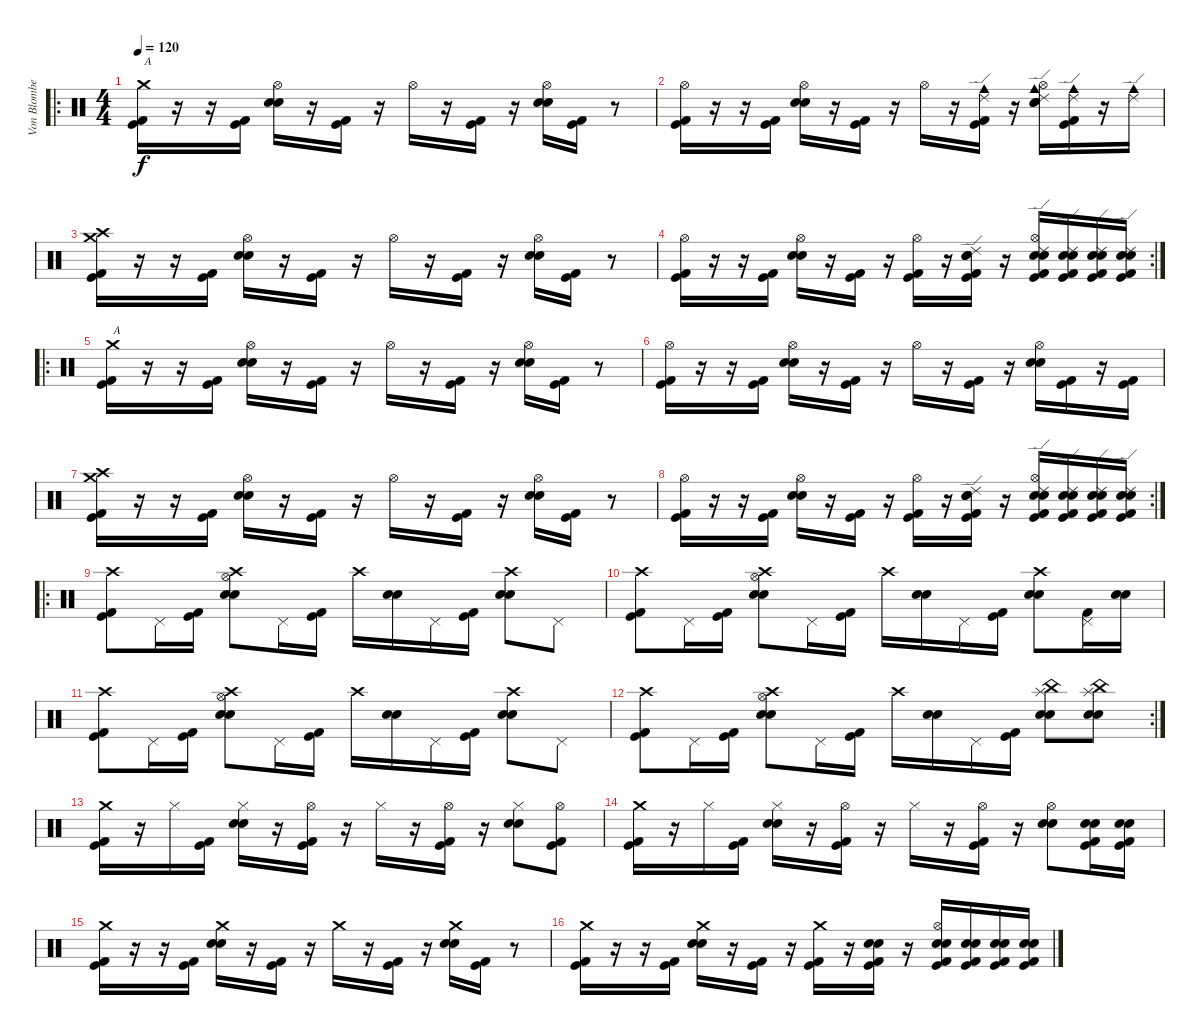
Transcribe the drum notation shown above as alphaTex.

\track ("Von Blomberg" "Von Blombe") {instrument percussion}
\staff {score}
\articulation defaults
\ro
\ts (4 4)
\tempo 120
\clef neutral
\ks c
("Crash medium (hit)" "Kick (hit) 2" "Kick (hit)").16{txt "A" dy f} r.16 r.16 ("Kick (hit)" "Kick (hit) 2").16 ("Hi-Hat (open)" "Electric Snare (hit)" "Snare (hit) 2").16 r.16 ("Kick (hit)" "Kick (hit) 2").16 r.16 "Hi-Hat (open)".16 r.16 ("Kick (hit)" "Kick (hit) 2").16 r.16 ("Hi-Hat (open)" "Snare (hit) 2" "Electric Snare (hit)").16 ("Kick (hit)" "Kick (hit) 2").16 r.8 |
("Hi-Hat (open)" "Kick (hit) 2" "Kick (hit)").16 r.16 r.16 ("Kick (hit)" "Kick (hit) 2").16 ("Hi-Hat (open)" "Electric Snare (hit)" "Snare (hit) 2").16 r.16 ("Kick (hit)" "Kick (hit) 2").16 r.16 "Hi-Hat (open)".16 r.16 ("Cowbell medium (hit)" "Ride (edge) 2" "Kick (hit)" "Kick (hit) 2").16 r.16 ("Cowbell medium (hit)" "Ride (edge) 2" "Hi-Hat (open)" "Snare (hit) 2" "Electric Snare (hit)").16 ("Cowbell medium (hit)" "Ride (edge) 2" "Kick (hit)" "Kick (hit) 2").16 r.16 ("Cowbell medium (hit)" "Ride (edge) 2").16 |
("Crash high (hit)" "Crash medium (hit)" "Kick (hit) 2" "Kick (hit)").16 r.16 r.16 ("Kick (hit)" "Kick (hit) 2").16 ("Hi-Hat (open)" "Electric Snare (hit)" "Snare (hit) 2").16 r.16 ("Kick (hit)" "Kick (hit) 2").16 r.16 "Hi-Hat (open)".16 r.16 ("Kick (hit)" "Kick (hit) 2").16 r.16 ("Hi-Hat (open)" "Snare (hit) 2" "Electric Snare (hit)").16 ("Kick (hit)" "Kick (hit) 2").16 r.8 |
\rc 2
("Hi-Hat (open)" "Kick (hit) 2" "Kick (hit)").16 r.16 r.16 ("Kick (hit)" "Kick (hit) 2").16 ("Hi-Hat (open)" "Electric Snare (hit)" "Snare (hit) 2").16 r.16 ("Kick (hit)" "Kick (hit) 2").16 r.16 ("Hi-Hat (open)" "Kick (hit)" "Kick (hit) 2").16 r.16 ("Ride (edge) 2" "Snare (hit) 2" "Electric Snare (hit)" "Kick (hit)" "Kick (hit) 2").16 r.16 ("Ride (edge) 2" "Kick (hit)" "Hi-Hat (open)" "Electric Snare (hit)" "Snare (hit) 2" "Kick (hit) 2").16 ("Ride (edge) 2" "Snare (hit) 2" "Electric Snare (hit)" "Kick (hit)" "Kick (hit) 2").16 ("Ride (edge) 2" "Snare (hit) 2" "Electric Snare (hit)" "Kick (hit)" "Kick (hit) 2").16 ("Ride (edge) 2" "Snare (hit) 2" "Electric Snare (hit)" "Kick (hit)" "Kick (hit) 2").16 |
\ro
("Crash medium (hit)" "Kick (hit) 2" "Kick (hit)").16{txt "A"} r.16 r.16 ("Kick (hit)" "Kick (hit) 2").16 ("Hi-Hat (open)" "Electric Snare (hit)" "Snare (hit) 2").16 r.16 ("Kick (hit)" "Kick (hit) 2").16 r.16 "Hi-Hat (open)".16 r.16 ("Kick (hit)" "Kick (hit) 2").16 r.16 ("Hi-Hat (open)" "Snare (hit) 2" "Electric Snare (hit)").16 ("Kick (hit)" "Kick (hit) 2").16 r.8 |
("Hi-Hat (open)" "Kick (hit) 2" "Kick (hit)").16 r.16 r.16 ("Kick (hit)" "Kick (hit) 2").16 ("Hi-Hat (open)" "Electric Snare (hit)" "Snare (hit) 2").16 r.16 ("Kick (hit)" "Kick (hit) 2").16 r.16 "Hi-Hat (open)".16 r.16 ("Kick (hit)" "Kick (hit) 2").16 r.16 ("Hi-Hat (open)" "Snare (hit) 2" "Electric Snare (hit)").16 ("Kick (hit)" "Kick (hit) 2").16 r.16 ("Kick (hit)" "Kick (hit) 2").16 |
("Crash high (hit)" "Crash medium (hit)" "Kick (hit) 2" "Kick (hit)").16 r.16 r.16 ("Kick (hit)" "Kick (hit) 2").16 ("Hi-Hat (open)" "Electric Snare (hit)" "Snare (hit) 2").16 r.16 ("Kick (hit)" "Kick (hit) 2").16 r.16 "Hi-Hat (open)".16 r.16 ("Kick (hit)" "Kick (hit) 2").16 r.16 ("Hi-Hat (open)" "Snare (hit) 2" "Electric Snare (hit)").16 ("Kick (hit)" "Kick (hit) 2").16 r.8 |
\rc 2
("Hi-Hat (open)" "Kick (hit) 2" "Kick (hit)").16 r.16 r.16 ("Kick (hit)" "Kick (hit) 2").16 ("Hi-Hat (open)" "Electric Snare (hit)" "Snare (hit) 2").16 r.16 ("Kick (hit)" "Kick (hit) 2").16 r.16 ("Hi-Hat (open)" "Kick (hit)" "Kick (hit) 2").16 r.16 ("Ride (edge) 2" "Snare (hit) 2" "Electric Snare (hit)" "Kick (hit)" "Kick (hit) 2").16 r.16 ("Ride (edge) 2" "Kick (hit)" "Hi-Hat (open)" "Electric Snare (hit)" "Snare (hit) 2" "Kick (hit) 2").16 ("Ride (edge) 2" "Snare (hit) 2" "Electric Snare (hit)" "Kick (hit)" "Kick (hit) 2").16 ("Ride (edge) 2" "Snare (hit) 2" "Electric Snare (hit)" "Kick (hit)" "Kick (hit) 2").16 ("Ride (edge) 2" "Snare (hit) 2" "Electric Snare (hit)" "Kick (hit)" "Kick (hit) 2").16 |
\ro
("Crash high (hit)" "Kick (hit)" "Kick (hit) 2").8 "Pedal Hi-Hat (hit)".16 ("Kick (hit)" "Kick (hit) 2").16 ("Crash high (hit)" "Hi-Hat (open)" "Snare (hit) 2" "Electric Snare (hit)").8 "Pedal Hi-Hat (hit)".16 ("Kick (hit)" "Kick (hit) 2").16 "Crash high (hit)".16 ("Snare (hit) 2" "Electric Snare (hit)").16 "Pedal Hi-Hat (hit)".16 ("Kick (hit)" "Kick (hit) 2").16 ("Crash high (hit)" "Snare (hit) 2" "Electric Snare (hit)").8 "Pedal Hi-Hat (hit)".8 |
("Crash high (hit)" "Kick (hit)" "Kick (hit) 2").8 "Pedal Hi-Hat (hit)".16 ("Kick (hit)" "Kick (hit) 2").16 ("Crash high (hit)" "Hi-Hat (open)" "Snare (hit) 2" "Electric Snare (hit)").8 "Pedal Hi-Hat (hit)".16 ("Kick (hit)" "Kick (hit) 2").16 "Crash high (hit)".16 ("Snare (hit) 2" "Electric Snare (hit)").16 "Pedal Hi-Hat (hit)".16 ("Kick (hit)" "Kick (hit) 2").16 ("Crash high (hit)" "Snare (hit) 2" "Electric Snare (hit)").8 ("Pedal Hi-Hat (hit)" "Kick (hit) 2").16 ("Electric Snare (hit)" "Snare (hit) 2").16 |
("Crash high (hit)" "Kick (hit)" "Kick (hit) 2").8 "Pedal Hi-Hat (hit)".16 ("Kick (hit)" "Kick (hit) 2").16 ("Crash high (hit)" "Hi-Hat (open)" "Snare (hit) 2" "Electric Snare (hit)").8 "Pedal Hi-Hat (hit)".16 ("Kick (hit)" "Kick (hit) 2").16 "Crash high (hit)".16 ("Snare (hit) 2" "Electric Snare (hit)").16 "Pedal Hi-Hat (hit)".16 ("Kick (hit)" "Kick (hit) 2").16 ("Crash high (hit)" "Snare (hit) 2" "Electric Snare (hit)").8 "Pedal Hi-Hat (hit)".8 |
\rc 2
("Crash high (hit)" "Kick (hit)" "Kick (hit) 2").8 "Pedal Hi-Hat (hit)".16 ("Kick (hit)" "Kick (hit) 2").16 ("Crash high (hit)" "Hi-Hat (open)" "Snare (hit) 2" "Electric Snare (hit)").8 "Pedal Hi-Hat (hit)".16 ("Kick (hit)" "Kick (hit) 2").16 "Crash high (hit)".16 ("Snare (hit) 2" "Electric Snare (hit)").16 "Pedal Hi-Hat (hit)".16 ("Kick (hit)" "Kick (hit) 2").16 ("China (hit)" "Splash (hit)" "Snare (hit) 2" "Electric Snare (hit)").8 ("China (hit)" "Splash (hit)" "Snare (hit) 2" "Electric Snare (hit)").8 |
("Crash medium (hit)" "Kick (hit) 2" "Kick (hit)").16 r.16 "Hi-Hat (closed)".16 ("Kick (hit)" "Kick (hit) 2").16 ("Hi-Hat (closed)" "Electric Snare (hit)" "Snare (hit) 2").16 r.16 ("Hi-Hat (open)" "Kick (hit)" "Kick (hit) 2").16 r.16 "Hi-Hat (closed)".16 r.16 ("Hi-Hat (open)" "Kick (hit)" "Kick (hit) 2").16 r.16 ("Hi-Hat (closed)" "Snare (hit) 2" "Electric Snare (hit)").8 ("Hi-Hat (open)" "Kick (hit) 2" "Kick (hit)").8 |
("Crash medium (hit)" "Kick (hit) 2" "Kick (hit)").16 r.16 "Hi-Hat (closed)".16 ("Kick (hit)" "Kick (hit) 2").16 ("Hi-Hat (closed)" "Electric Snare (hit)" "Snare (hit) 2").16 r.16 ("Hi-Hat (open)" "Kick (hit)" "Kick (hit) 2").16 r.16 "Hi-Hat (closed)".16 r.16 ("Hi-Hat (open)" "Kick (hit)" "Kick (hit) 2").16 r.16 ("Hi-Hat (open)" "Snare (hit) 2" "Electric Snare (hit)").8 ("Electric Snare (hit)" "Snare (hit) 2" "Kick (hit) 2" "Kick (hit)").16 ("Electric Snare (hit)" "Snare (hit) 2" "Kick (hit)" "Kick (hit) 2").16 |
("Crash medium (hit)" "Kick (hit) 2" "Kick (hit)").16 r.16 r.16 ("Kick (hit)" "Kick (hit) 2").16 ("Crash medium (hit)" "Electric Snare (hit)" "Snare (hit) 2").16 r.16 ("Kick (hit)" "Kick (hit) 2").16 r.16 "Crash medium (hit)".16 r.16 ("Kick (hit)" "Kick (hit) 2").16 r.16 ("Crash medium (hit)" "Snare (hit) 2" "Electric Snare (hit)").16 ("Kick (hit)" "Kick (hit) 2").16 r.8 |
("Crash medium (hit)" "Kick (hit) 2" "Kick (hit)").16 r.16 r.16 ("Kick (hit)" "Kick (hit) 2").16 ("Crash medium (hit)" "Electric Snare (hit)" "Snare (hit) 2").16 r.16 ("Kick (hit)" "Kick (hit) 2").16 r.16 ("Crash medium (hit)" "Kick (hit)" "Kick (hit) 2").16 r.16 ("Snare (hit) 2" "Electric Snare (hit)" "Kick (hit)" "Kick (hit) 2").16 r.16 ("Kick (hit)" "Hi-Hat (open)" "Electric Snare (hit)" "Snare (hit) 2" "Kick (hit) 2").16 ("Snare (hit) 2" "Electric Snare (hit)" "Kick (hit)" "Kick (hit) 2").16 ("Snare (hit) 2" "Electric Snare (hit)" "Kick (hit)" "Kick (hit) 2").16 ("Snare (hit) 2" "Electric Snare (hit)" "Kick (hit)" "Kick (hit) 2").16
